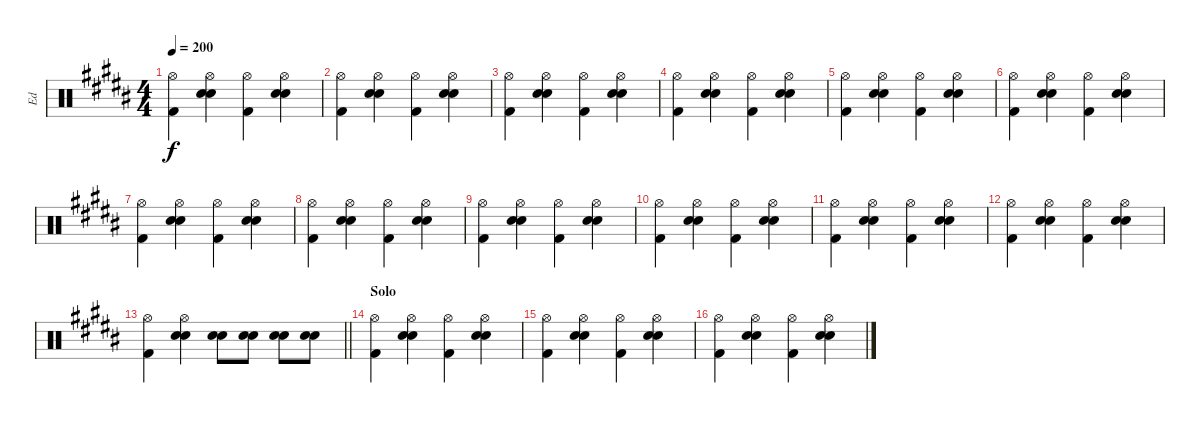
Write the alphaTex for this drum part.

\track ("Ed" "Ed") {instrument percussion bank 127}
\staff {score}
\articulation defaults
\ts (4 4)
\tempo 200
\clef neutral
\ks g#minor
("Hi-Hat (open)" "Kick (hit) 2").4{dy f} ("Hi-Hat (open)" "Electric Snare (hit)" "Electric Snare (hit)").4 ("Hi-Hat (open)" "Kick (hit) 2").4 ("Hi-Hat (open)" "Electric Snare (hit)" "Electric Snare (hit)").4 |
("Hi-Hat (open)" "Kick (hit) 2").4 ("Hi-Hat (open)" "Electric Snare (hit)" "Electric Snare (hit)").4 ("Hi-Hat (open)" "Kick (hit) 2").4 ("Hi-Hat (open)" "Electric Snare (hit)" "Electric Snare (hit)").4 |
("Hi-Hat (open)" "Kick (hit) 2").4 ("Hi-Hat (open)" "Electric Snare (hit)" "Electric Snare (hit)").4 ("Hi-Hat (open)" "Kick (hit) 2").4 ("Hi-Hat (open)" "Electric Snare (hit)" "Electric Snare (hit)").4 |
("Hi-Hat (open)" "Kick (hit) 2").4 ("Hi-Hat (open)" "Electric Snare (hit)" "Electric Snare (hit)").4 ("Hi-Hat (open)" "Kick (hit) 2").4 ("Hi-Hat (open)" "Electric Snare (hit)" "Electric Snare (hit)").4 |
("Hi-Hat (open)" "Kick (hit) 2").4 ("Hi-Hat (open)" "Electric Snare (hit)" "Electric Snare (hit)").4 ("Hi-Hat (open)" "Kick (hit) 2").4 ("Hi-Hat (open)" "Electric Snare (hit)" "Electric Snare (hit)").4 |
("Hi-Hat (open)" "Kick (hit) 2").4 ("Hi-Hat (open)" "Electric Snare (hit)" "Electric Snare (hit)").4 ("Hi-Hat (open)" "Kick (hit) 2").4 ("Hi-Hat (open)" "Electric Snare (hit)" "Electric Snare (hit)").4 |
("Hi-Hat (open)" "Kick (hit) 2").4 ("Hi-Hat (open)" "Electric Snare (hit)" "Electric Snare (hit)").4 ("Hi-Hat (open)" "Kick (hit) 2").4 ("Hi-Hat (open)" "Electric Snare (hit)" "Electric Snare (hit)").4 |
("Hi-Hat (open)" "Kick (hit) 2").4 ("Hi-Hat (open)" "Electric Snare (hit)" "Electric Snare (hit)").4 ("Hi-Hat (open)" "Kick (hit) 2").4 ("Hi-Hat (open)" "Electric Snare (hit)" "Electric Snare (hit)").4 |
("Hi-Hat (open)" "Kick (hit) 2").4 ("Hi-Hat (open)" "Electric Snare (hit)" "Electric Snare (hit)").4 ("Hi-Hat (open)" "Kick (hit) 2").4 ("Hi-Hat (open)" "Electric Snare (hit)" "Electric Snare (hit)").4 |
("Hi-Hat (open)" "Kick (hit) 2").4 ("Hi-Hat (open)" "Electric Snare (hit)" "Electric Snare (hit)").4 ("Hi-Hat (open)" "Kick (hit) 2").4 ("Hi-Hat (open)" "Electric Snare (hit)" "Electric Snare (hit)").4 |
("Hi-Hat (open)" "Kick (hit) 2").4 ("Hi-Hat (open)" "Electric Snare (hit)" "Electric Snare (hit)").4 ("Hi-Hat (open)" "Kick (hit) 2").4 ("Hi-Hat (open)" "Electric Snare (hit)" "Electric Snare (hit)").4 |
("Hi-Hat (open)" "Kick (hit) 2").4 ("Hi-Hat (open)" "Electric Snare (hit)" "Electric Snare (hit)").4 ("Hi-Hat (open)" "Kick (hit) 2").4 ("Hi-Hat (open)" "Electric Snare (hit)" "Electric Snare (hit)").4 |
\barLineRight lightlight
("Hi-Hat (open)" "Kick (hit) 2").4 ("Hi-Hat (open)" "Electric Snare (hit)" "Electric Snare (hit)").4 ("Electric Snare (hit)" "Electric Snare (hit)").8 ("Electric Snare (hit)" "Electric Snare (hit)").8 ("Electric Snare (hit)" "Electric Snare (hit)").8 ("Electric Snare (hit)" "Electric Snare (hit)").8 |
\section ("" "Solo")
("Hi-Hat (open)" "Kick (hit) 2").4 ("Hi-Hat (open)" "Electric Snare (hit)" "Electric Snare (hit)").4 ("Hi-Hat (open)" "Kick (hit) 2").4 ("Hi-Hat (open)" "Electric Snare (hit)" "Electric Snare (hit)").4 |
("Hi-Hat (open)" "Kick (hit) 2").4 ("Hi-Hat (open)" "Electric Snare (hit)" "Electric Snare (hit)").4 ("Hi-Hat (open)" "Kick (hit) 2").4 ("Hi-Hat (open)" "Electric Snare (hit)" "Electric Snare (hit)").4 |
("Hi-Hat (open)" "Kick (hit) 2").4 ("Hi-Hat (open)" "Electric Snare (hit)" "Electric Snare (hit)").4 ("Hi-Hat (open)" "Kick (hit) 2").4 ("Hi-Hat (open)" "Electric Snare (hit)" "Electric Snare (hit)").4
